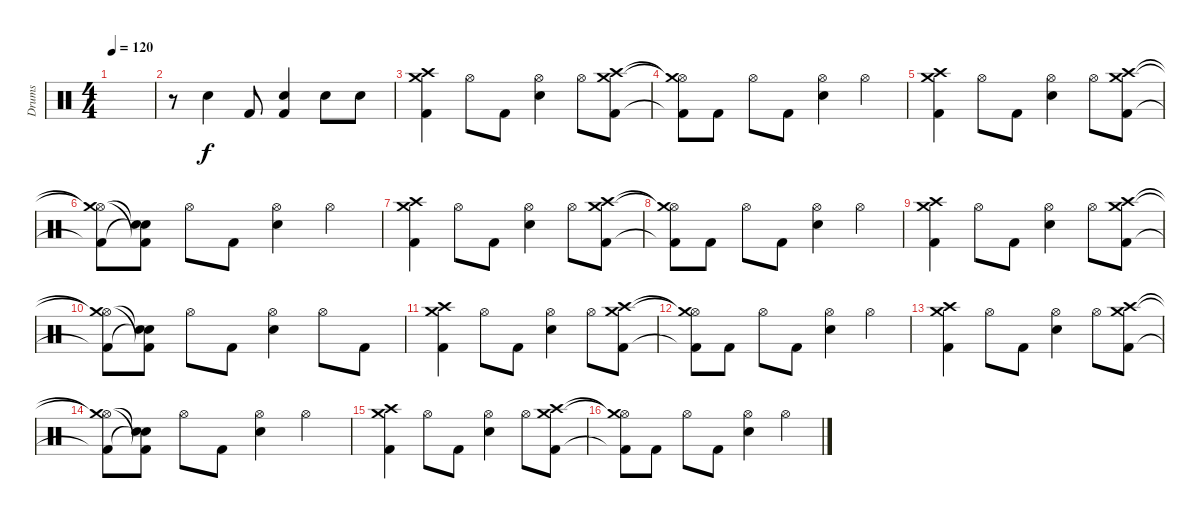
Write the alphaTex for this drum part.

\track ("Drums" "Drums") {instrument percussion}
\staff {score}
\articulation defaults
\ts (4 4)
\tempo 120
\clef neutral
\ks c
|
r.8 "Snare (hit) 2".4 "Kick (hit) 2".8 ("Snare (hit) 2" "Kick (hit) 2").4 "Snare (hit) 2".8 "Snare (hit) 2".8 |
("Crash high (hit)" "Crash medium (hit)" "Kick (hit) 2").4 "Hi-Hat (open)".8 "Kick (hit) 2".8 ("Hi-Hat (open)" "Snare (hit) 2").4 "Hi-Hat (open)".8 ("Crash high (hit)" "Crash medium (hit)" "Kick (hit) 2").8 |
("Hi-Hat (open)"{t} "Crash medium (hit)"{t} "Kick (hit) 2"{t}).8 "Kick (hit) 2".8 "Hi-Hat (open)".8 "Kick (hit) 2".8 ("Hi-Hat (open)" "Snare (hit) 2").4 "Hi-Hat (open)".4 |
("Crash high (hit)" "Crash medium (hit)" "Kick (hit) 2").4 "Hi-Hat (open)".8 "Kick (hit) 2".8 ("Hi-Hat (open)" "Snare (hit) 2").4 "Hi-Hat (open)".8 ("Crash high (hit)" "Crash medium (hit)" "Kick (hit) 2").8 |
("Hi-Hat (open)"{t} "Crash medium (hit)"{t} "Kick (hit) 2"{t}).8 ("Kick (hit) 2"{t} "Snare (hit)"{t} "Snare (hit)"{t}).8 "Hi-Hat (open)".8 "Kick (hit) 2".8 ("Hi-Hat (open)" "Snare (hit) 2").4 "Hi-Hat (open)".4 |
("Crash high (hit)" "Crash medium (hit)" "Kick (hit) 2").4 "Hi-Hat (open)".8 "Kick (hit) 2".8 ("Hi-Hat (open)" "Snare (hit) 2").4 "Hi-Hat (open)".8 ("Crash high (hit)" "Crash medium (hit)" "Kick (hit) 2").8 |
("Hi-Hat (open)"{t} "Crash medium (hit)"{t} "Kick (hit) 2"{t}).8 "Kick (hit) 2".8 "Hi-Hat (open)".8 "Kick (hit) 2".8 ("Hi-Hat (open)" "Snare (hit) 2").4 "Hi-Hat (open)".4 |
("Crash high (hit)" "Crash medium (hit)" "Kick (hit) 2").4 "Hi-Hat (open)".8 "Kick (hit) 2".8 ("Hi-Hat (open)" "Snare (hit) 2").4 "Hi-Hat (open)".8 ("Crash high (hit)" "Crash medium (hit)" "Kick (hit) 2").8 |
("Hi-Hat (open)"{t} "Crash medium (hit)"{t} "Kick (hit) 2"{t}).8 ("Kick (hit) 2"{t} "Snare (hit)"{t} "Snare (hit)"{t}).8 "Hi-Hat (open)".8 "Kick (hit) 2".8 ("Hi-Hat (open)" "Snare (hit) 2").4 "Hi-Hat (open)".8 "Kick (hit) 2".8 |
("Crash high (hit)" "Crash medium (hit)" "Kick (hit) 2").4 "Hi-Hat (open)".8 "Kick (hit) 2".8 ("Hi-Hat (open)" "Snare (hit) 2").4 "Hi-Hat (open)".8 ("Crash high (hit)" "Crash medium (hit)" "Kick (hit) 2").8 |
("Hi-Hat (open)"{t} "Crash medium (hit)"{t} "Kick (hit) 2"{t}).8 "Kick (hit) 2".8 "Hi-Hat (open)".8 "Kick (hit) 2".8 ("Hi-Hat (open)" "Snare (hit) 2").4 "Hi-Hat (open)".4 |
("Crash high (hit)" "Crash medium (hit)" "Kick (hit) 2").4 "Hi-Hat (open)".8 "Kick (hit) 2".8 ("Hi-Hat (open)" "Snare (hit) 2").4 "Hi-Hat (open)".8 ("Crash high (hit)" "Crash medium (hit)" "Kick (hit) 2").8 |
("Hi-Hat (open)"{t} "Crash medium (hit)"{t} "Kick (hit) 2"{t}).8 ("Kick (hit) 2"{t} "Snare (hit)"{t} "Snare (hit)"{t}).8 "Hi-Hat (open)".8 "Kick (hit) 2".8 ("Hi-Hat (open)" "Snare (hit) 2").4 "Hi-Hat (open)".4 |
("Crash high (hit)" "Crash medium (hit)" "Kick (hit) 2").4 "Hi-Hat (open)".8 "Kick (hit) 2".8 ("Hi-Hat (open)" "Snare (hit) 2").4 "Hi-Hat (open)".8 ("Crash high (hit)" "Crash medium (hit)" "Kick (hit) 2").8 |
("Hi-Hat (open)"{t} "Crash medium (hit)"{t} "Kick (hit) 2"{t}).8 "Kick (hit) 2".8 "Hi-Hat (open)".8 "Kick (hit) 2".8 ("Hi-Hat (open)" "Snare (hit) 2").4 "Hi-Hat (open)".4
